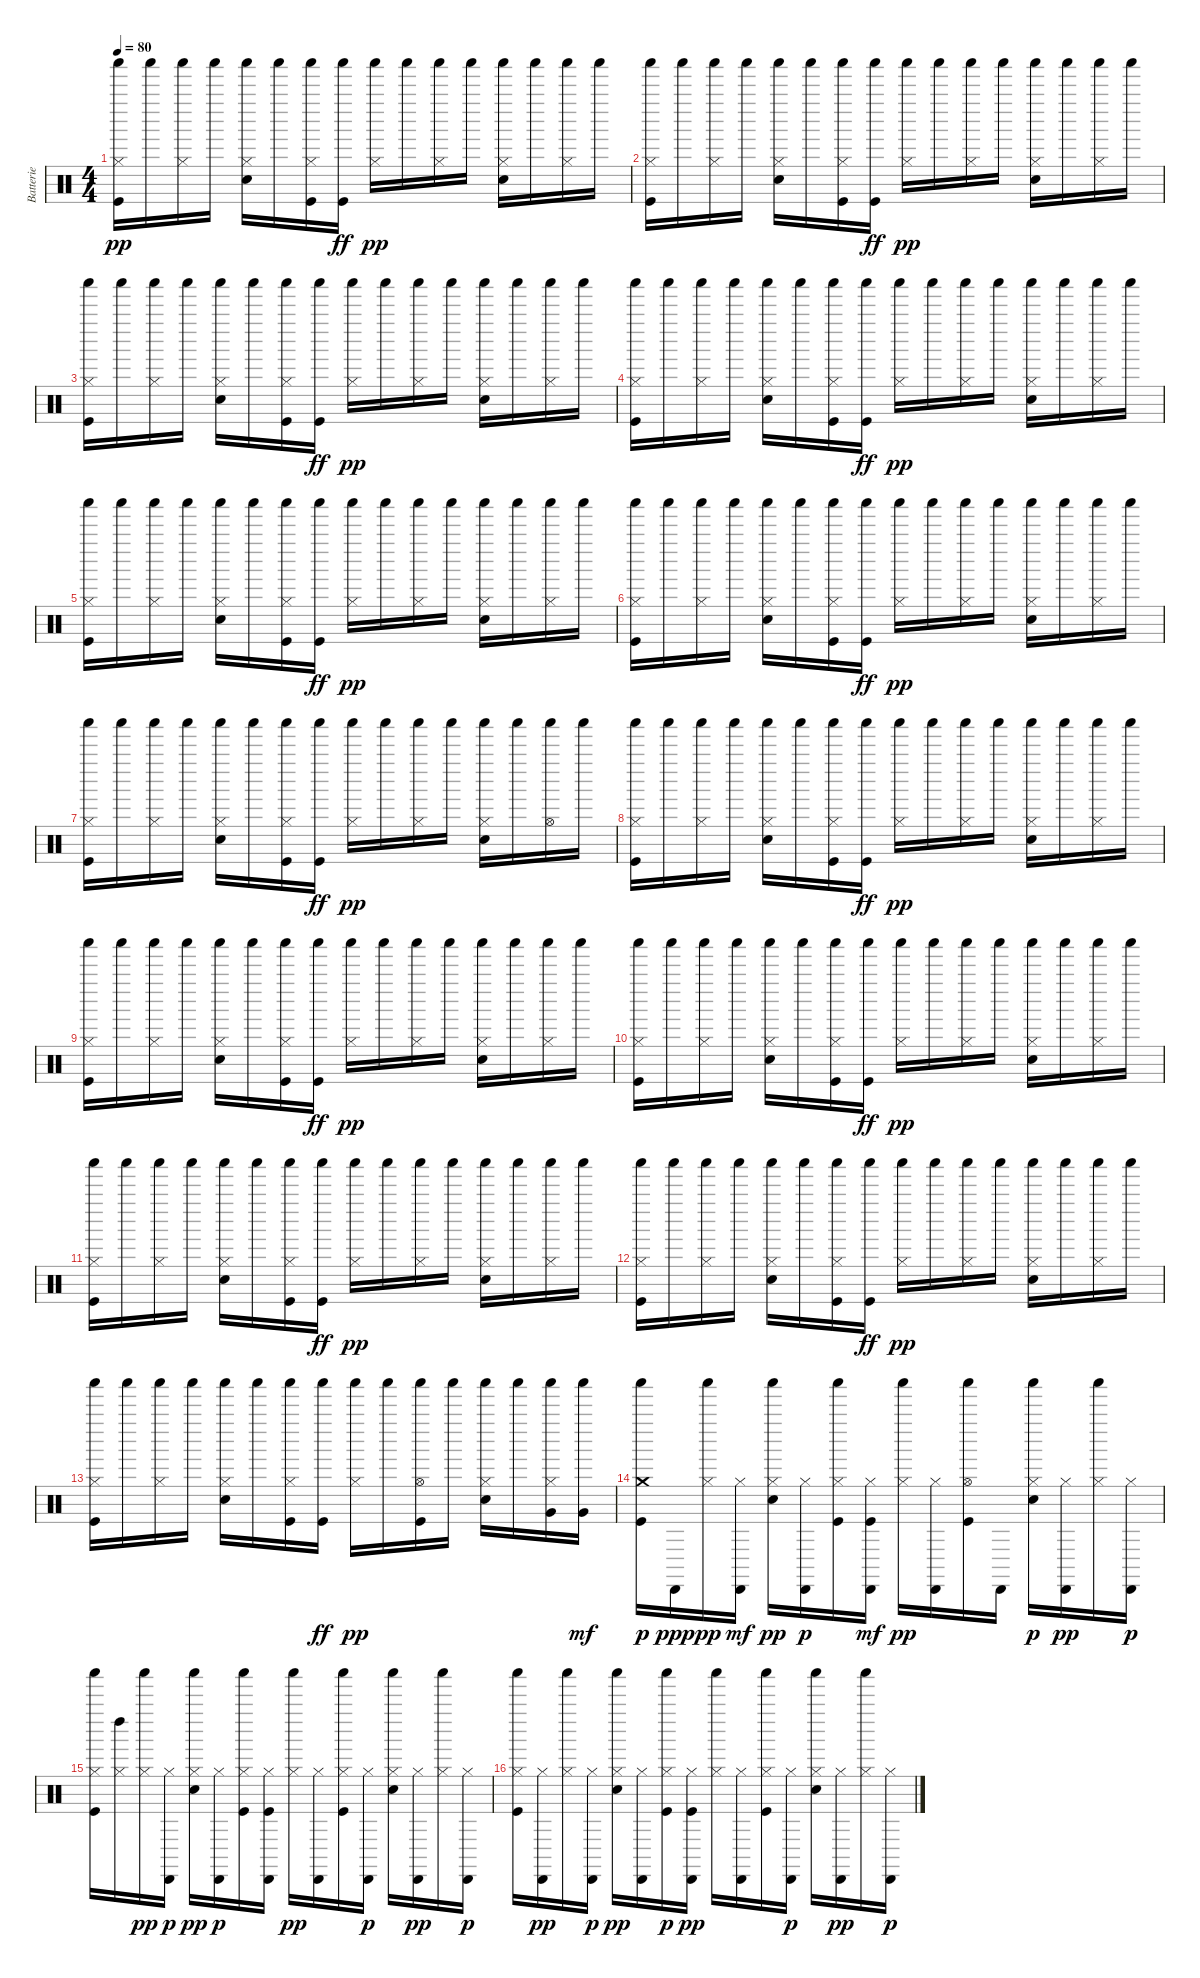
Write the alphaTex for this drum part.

\track ("Batterie" "Batterie") {instrument percussion}
\staff {score}
\articulation defaults
\ts (4 4)
\tempo 80
\clef neutral
\ks c
("Kick (hit)" "Hi-Hat (closed)" "Shaker (hit)").16{dy pp} "Shaker (hit)".16 ("Hi-Hat (closed)" "Shaker (hit)").16 "Shaker (hit)".16 ("Snare (hit) 2" "Hi-Hat (closed)" "Shaker (hit)").16 "Shaker (hit)".16 ("Kick (hit)" "Hi-Hat (closed)" "Shaker (hit)").16 ("Shaker (hit)" "Kick (hit)").16{dy ff} ("Hi-Hat (closed)" "Shaker (hit)").16{dy pp} "Shaker (hit)".16 ("Hi-Hat (closed)" "Shaker (hit)").16 "Shaker (hit)".16 ("Snare (hit) 2" "Hi-Hat (closed)" "Shaker (hit)").16 "Shaker (hit)".16 ("Hi-Hat (closed)" "Shaker (hit)").16 "Shaker (hit)".16 |
("Kick (hit)" "Hi-Hat (closed)" "Shaker (hit)").16 "Shaker (hit)".16 ("Hi-Hat (closed)" "Shaker (hit)").16 "Shaker (hit)".16 ("Snare (hit) 2" "Hi-Hat (closed)" "Shaker (hit)").16 "Shaker (hit)".16 ("Kick (hit)" "Hi-Hat (closed)" "Shaker (hit)").16 ("Shaker (hit)" "Kick (hit)").16{dy ff} ("Hi-Hat (closed)" "Shaker (hit)").16{dy pp} "Shaker (hit)".16 ("Hi-Hat (closed)" "Shaker (hit)").16 "Shaker (hit)".16 ("Snare (hit) 2" "Hi-Hat (closed)" "Shaker (hit)").16 "Shaker (hit)".16 ("Hi-Hat (closed)" "Shaker (hit)").16 "Shaker (hit)".16 |
("Kick (hit)" "Hi-Hat (closed)" "Shaker (hit)").16 "Shaker (hit)".16 ("Hi-Hat (closed)" "Shaker (hit)").16 "Shaker (hit)".16 ("Snare (hit) 2" "Hi-Hat (closed)" "Shaker (hit)").16 "Shaker (hit)".16 ("Kick (hit)" "Hi-Hat (closed)" "Shaker (hit)").16 ("Shaker (hit)" "Kick (hit)").16{dy ff} ("Hi-Hat (closed)" "Shaker (hit)").16{dy pp} "Shaker (hit)".16 ("Hi-Hat (closed)" "Shaker (hit)").16 "Shaker (hit)".16 ("Snare (hit) 2" "Hi-Hat (closed)" "Shaker (hit)").16 "Shaker (hit)".16 ("Hi-Hat (closed)" "Shaker (hit)").16 "Shaker (hit)".16 |
("Kick (hit)" "Hi-Hat (closed)" "Shaker (hit)").16 "Shaker (hit)".16 ("Hi-Hat (closed)" "Shaker (hit)").16 "Shaker (hit)".16 ("Snare (hit) 2" "Hi-Hat (closed)" "Shaker (hit)").16 "Shaker (hit)".16 ("Kick (hit)" "Hi-Hat (closed)" "Shaker (hit)").16 ("Shaker (hit)" "Kick (hit)").16{dy ff} ("Hi-Hat (closed)" "Shaker (hit)").16{dy pp} "Shaker (hit)".16 ("Hi-Hat (closed)" "Shaker (hit)").16 "Shaker (hit)".16 ("Snare (hit) 2" "Hi-Hat (closed)" "Shaker (hit)").16 "Shaker (hit)".16 ("Hi-Hat (closed)" "Shaker (hit)").16 "Shaker (hit)".16 |
("Kick (hit)" "Hi-Hat (closed)" "Shaker (hit)").16 "Shaker (hit)".16 ("Hi-Hat (closed)" "Shaker (hit)").16 "Shaker (hit)".16 ("Snare (hit) 2" "Hi-Hat (closed)" "Shaker (hit)").16 "Shaker (hit)".16 ("Kick (hit)" "Hi-Hat (closed)" "Shaker (hit)").16 ("Shaker (hit)" "Kick (hit)").16{dy ff} ("Hi-Hat (closed)" "Shaker (hit)").16{dy pp} "Shaker (hit)".16 ("Hi-Hat (closed)" "Shaker (hit)").16 "Shaker (hit)".16 ("Snare (hit) 2" "Hi-Hat (closed)" "Shaker (hit)").16 "Shaker (hit)".16 ("Hi-Hat (closed)" "Shaker (hit)").16 "Shaker (hit)".16 |
("Kick (hit)" "Hi-Hat (closed)" "Shaker (hit)").16 "Shaker (hit)".16 ("Hi-Hat (closed)" "Shaker (hit)").16 "Shaker (hit)".16 ("Snare (hit) 2" "Hi-Hat (closed)" "Shaker (hit)").16 "Shaker (hit)".16 ("Kick (hit)" "Hi-Hat (closed)" "Shaker (hit)").16 ("Shaker (hit)" "Kick (hit)").16{dy ff} ("Hi-Hat (closed)" "Shaker (hit)").16{dy pp} "Shaker (hit)".16 ("Hi-Hat (closed)" "Shaker (hit)").16 "Shaker (hit)".16 ("Snare (hit) 2" "Hi-Hat (closed)" "Shaker (hit)").16 "Shaker (hit)".16 ("Hi-Hat (closed)" "Shaker (hit)").16 "Shaker (hit)".16 |
("Kick (hit)" "Hi-Hat (closed)" "Shaker (hit)").16 "Shaker (hit)".16 ("Hi-Hat (closed)" "Shaker (hit)").16 "Shaker (hit)".16 ("Snare (hit) 2" "Hi-Hat (closed)" "Shaker (hit)").16 "Shaker (hit)".16 ("Kick (hit)" "Hi-Hat (closed)" "Shaker (hit)").16 ("Shaker (hit)" "Kick (hit)").16{dy ff} ("Hi-Hat (closed)" "Shaker (hit)").16{dy pp} "Shaker (hit)".16 ("Hi-Hat (closed)" "Shaker (hit)").16 "Shaker (hit)".16 ("Snare (hit) 2" "Hi-Hat (closed)" "Shaker (hit)").16 "Shaker (hit)".16 ("Hi-Hat (open)" "Shaker (hit)").16 "Shaker (hit)".16 |
("Kick (hit)" "Hi-Hat (closed)" "Shaker (hit)").16 "Shaker (hit)".16 ("Hi-Hat (closed)" "Shaker (hit)").16 "Shaker (hit)".16 ("Snare (hit) 2" "Hi-Hat (closed)" "Shaker (hit)").16 "Shaker (hit)".16 ("Kick (hit)" "Hi-Hat (closed)" "Shaker (hit)").16 ("Shaker (hit)" "Kick (hit)").16{dy ff} ("Hi-Hat (closed)" "Shaker (hit)").16{dy pp} "Shaker (hit)".16 ("Hi-Hat (closed)" "Shaker (hit)").16 "Shaker (hit)".16 ("Snare (hit) 2" "Hi-Hat (closed)" "Shaker (hit)").16 "Shaker (hit)".16 ("Hi-Hat (closed)" "Shaker (hit)").16 "Shaker (hit)".16 |
("Kick (hit)" "Hi-Hat (closed)" "Shaker (hit)").16 "Shaker (hit)".16 ("Hi-Hat (closed)" "Shaker (hit)").16 "Shaker (hit)".16 ("Snare (hit) 2" "Hi-Hat (closed)" "Shaker (hit)").16 "Shaker (hit)".16 ("Kick (hit)" "Hi-Hat (closed)" "Shaker (hit)").16 ("Shaker (hit)" "Kick (hit)").16{dy ff} ("Hi-Hat (closed)" "Shaker (hit)").16{dy pp} "Shaker (hit)".16 ("Hi-Hat (closed)" "Shaker (hit)").16 "Shaker (hit)".16 ("Snare (hit) 2" "Hi-Hat (closed)" "Shaker (hit)").16 "Shaker (hit)".16 ("Hi-Hat (closed)" "Shaker (hit)").16 "Shaker (hit)".16 |
("Kick (hit)" "Hi-Hat (closed)" "Shaker (hit)").16 "Shaker (hit)".16 ("Hi-Hat (closed)" "Shaker (hit)").16 "Shaker (hit)".16 ("Snare (hit) 2" "Hi-Hat (closed)" "Shaker (hit)").16 "Shaker (hit)".16 ("Kick (hit)" "Hi-Hat (closed)" "Shaker (hit)").16 ("Shaker (hit)" "Kick (hit)").16{dy ff} ("Hi-Hat (closed)" "Shaker (hit)").16{dy pp} "Shaker (hit)".16 ("Hi-Hat (closed)" "Shaker (hit)").16 "Shaker (hit)".16 ("Snare (hit) 2" "Hi-Hat (closed)" "Shaker (hit)").16 "Shaker (hit)".16 ("Hi-Hat (closed)" "Shaker (hit)").16 "Shaker (hit)".16 |
("Kick (hit)" "Hi-Hat (closed)" "Shaker (hit)").16 "Shaker (hit)".16 ("Hi-Hat (closed)" "Shaker (hit)").16 "Shaker (hit)".16 ("Snare (hit) 2" "Hi-Hat (closed)" "Shaker (hit)").16 "Shaker (hit)".16 ("Kick (hit)" "Hi-Hat (closed)" "Shaker (hit)").16 ("Shaker (hit)" "Kick (hit)").16{dy ff} ("Hi-Hat (closed)" "Shaker (hit)").16{dy pp} "Shaker (hit)".16 ("Hi-Hat (closed)" "Shaker (hit)").16 "Shaker (hit)".16 ("Snare (hit) 2" "Hi-Hat (closed)" "Shaker (hit)").16 "Shaker (hit)".16 ("Hi-Hat (closed)" "Shaker (hit)").16 "Shaker (hit)".16 |
("Kick (hit)" "Hi-Hat (closed)" "Shaker (hit)").16 "Shaker (hit)".16 ("Hi-Hat (closed)" "Shaker (hit)").16 "Shaker (hit)".16 ("Snare (hit) 2" "Hi-Hat (closed)" "Shaker (hit)").16 "Shaker (hit)".16 ("Kick (hit)" "Hi-Hat (closed)" "Shaker (hit)").16 ("Shaker (hit)" "Kick (hit)").16{dy ff} ("Hi-Hat (closed)" "Shaker (hit)").16{dy pp} "Shaker (hit)".16 ("Hi-Hat (closed)" "Shaker (hit)").16 "Shaker (hit)".16 ("Snare (hit) 2" "Hi-Hat (closed)" "Shaker (hit)").16 "Shaker (hit)".16 ("Hi-Hat (closed)" "Shaker (hit)").16 "Shaker (hit)".16 |
("Kick (hit)" "Hi-Hat (closed)" "Shaker (hit)").16 "Shaker (hit)".16 ("Hi-Hat (closed)" "Shaker (hit)").16 "Shaker (hit)".16 ("Snare (hit) 2" "Hi-Hat (closed)" "Shaker (hit)").16 "Shaker (hit)".16 ("Kick (hit)" "Hi-Hat (closed)" "Shaker (hit)").16 ("Shaker (hit)" "Kick (hit)").16{dy ff} ("Hi-Hat (closed)" "Shaker (hit)").16{dy pp} "Shaker (hit)".16 ("Kick (hit)" "Hi-Hat (open)" "Shaker (hit)").16 "Shaker (hit)".16 ("Snare (hit) 2" "Hi-Hat (closed)" "Shaker (hit)").16 "Shaker (hit)".16 ("Hi-Hat (closed)" "Very Low Tom (hit)" "Shaker (hit)").16 ("Shaker (hit)" "Very Low Tom (hit)").16{dy mf} |
("Kick (hit)" "Crash medium (hit)" "Shaker (hit)").16{dy p} "Cabasa (hit)".16{dy ppp} ("Hi-Hat (closed)" "Shaker (hit)").16{dy pp} ("Cabasa (hit)" "Hi-Hat (closed)").16{dy mf} ("Snare (hit) 2" "Hi-Hat (closed)" "Shaker (hit)").16{dy pp} ("Cabasa (hit)" "Hi-Hat (closed)").16{dy p} ("Kick (hit)" "Hi-Hat (closed)" "Shaker (hit)").16 ("Cabasa (hit)" "Kick (hit)" "Hi-Hat (closed)").16{dy mf} ("Hi-Hat (closed)" "Shaker (hit)").16{dy pp} ("Cabasa (hit)" "Hi-Hat (closed)").16 ("Kick (hit)" "Hi-Hat (open)" "Shaker (hit)").16 "Cabasa (hit)".16 ("Snare (hit) 2" "Hi-Hat (closed)" "Shaker (hit)").16{dy p} ("Cabasa (hit)" "Hi-Hat (closed)").16{dy pp} ("Hi-Hat (closed)" "Shaker (hit)").16 ("Cabasa (hit)" "Hi-Hat (closed)").16{dy p} |
("Kick (hit)" "Hi-Hat (closed)" "Shaker (hit)").16 ("Hi-Hat (closed)" "Left Maraca (hit)").16 ("Hi-Hat (closed)" "Shaker (hit)").16{dy pp} ("Cabasa (hit)" "Hi-Hat (closed)").16{dy p} ("Snare (hit) 2" "Hi-Hat (closed)" "Shaker (hit)").16{dy pp} ("Cabasa (hit)" "Hi-Hat (closed)").16{dy p} ("Kick (hit)" "Hi-Hat (closed)" "Shaker (hit)").16 ("Cabasa (hit)" "Kick (hit)" "Hi-Hat (closed)").16 ("Hi-Hat (closed)" "Shaker (hit)").16{dy pp} ("Cabasa (hit)" "Hi-Hat (closed)").16 ("Kick (hit)" "Hi-Hat (closed)" "Shaker (hit)").16 ("Cabasa (hit)" "Hi-Hat (closed)").16{dy p} ("Snare (hit) 2" "Hi-Hat (closed)" "Shaker (hit)").16 ("Cabasa (hit)" "Hi-Hat (closed)").16{dy pp} ("Hi-Hat (closed)" "Shaker (hit)").16 ("Cabasa (hit)" "Hi-Hat (closed)").16{dy p} |
("Kick (hit)" "Hi-Hat (closed)" "Shaker (hit)").16 ("Cabasa (hit)" "Hi-Hat (closed)").16{dy pp} ("Hi-Hat (closed)" "Shaker (hit)").16 ("Cabasa (hit)" "Hi-Hat (closed)").16{dy p} ("Snare (hit) 2" "Hi-Hat (closed)" "Shaker (hit)").16{dy pp} ("Cabasa (hit)" "Hi-Hat (closed)").16 ("Kick (hit)" "Hi-Hat (closed)" "Shaker (hit)").16{dy p} ("Cabasa (hit)" "Kick (hit)" "Hi-Hat (closed)").16{dy pp} ("Hi-Hat (closed)" "Shaker (hit)").16 ("Cabasa (hit)" "Hi-Hat (closed)").16 ("Kick (hit)" "Hi-Hat (closed)" "Shaker (hit)").16 ("Cabasa (hit)" "Hi-Hat (closed)").16{dy p} ("Snare (hit) 2" "Hi-Hat (closed)" "Shaker (hit)").16 ("Cabasa (hit)" "Hi-Hat (closed)").16{dy pp} ("Hi-Hat (closed)" "Shaker (hit)").16 ("Cabasa (hit)" "Hi-Hat (closed)").16{dy p}
